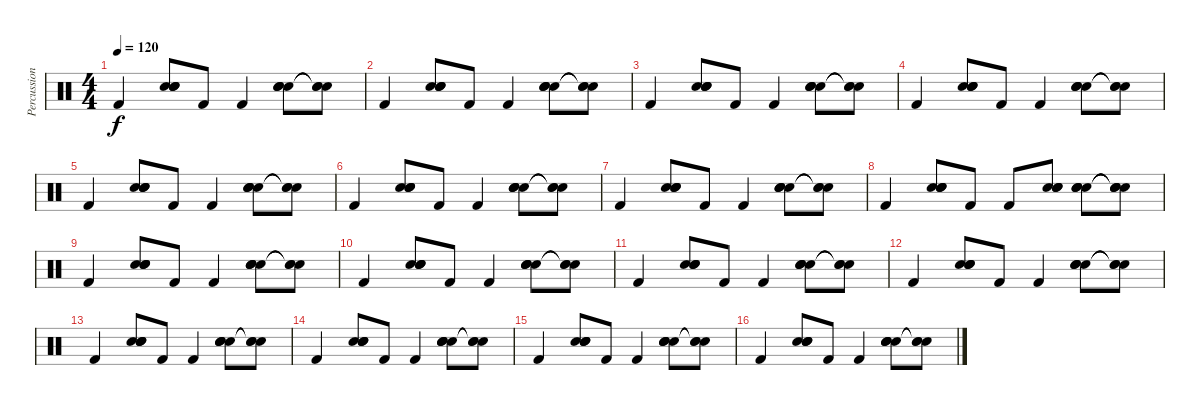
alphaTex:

\track ("Percussion" "Percussion") {instrument percussion}
\staff {score}
\articulation defaults
\ts (4 4)
\tempo 120
\clef neutral
\ks c "Kick (hit) 2".4{dy f}
("Snare (hit) 2" "Snare (hit) 2" "Electric Snare (hit)" "Electric Snare (hit)").8 "Kick (hit) 2".8 "Kick (hit) 2".4 ("Snare (hit) 2" "Snare (hit) 2" "Electric Snare (hit)" "Electric Snare (hit)").8 ("Snare (hit)"{t} "Snare (hit)"{t} "Snare (hit)"{t}).8 |
"Kick (hit) 2".4 ("Snare (hit) 2" "Snare (hit) 2" "Electric Snare (hit)" "Electric Snare (hit)").8 "Kick (hit) 2".8 "Kick (hit) 2".4 ("Snare (hit) 2" "Snare (hit) 2" "Electric Snare (hit)" "Electric Snare (hit)").8 ("Snare (hit)"{t} "Snare (hit)"{t} "Snare (hit)"{t}).8 |
"Kick (hit) 2".4 ("Snare (hit) 2" "Snare (hit) 2" "Electric Snare (hit)" "Electric Snare (hit)").8 "Kick (hit) 2".8 "Kick (hit) 2".4 ("Snare (hit) 2" "Snare (hit) 2" "Electric Snare (hit)" "Electric Snare (hit)").8 ("Snare (hit)"{t} "Snare (hit)"{t} "Snare (hit)"{t}).8 |
"Kick (hit) 2".4 ("Snare (hit) 2" "Snare (hit) 2" "Electric Snare (hit)" "Electric Snare (hit)").8 "Kick (hit) 2".8 "Kick (hit) 2".4 ("Snare (hit) 2" "Snare (hit) 2" "Electric Snare (hit)" "Electric Snare (hit)").8 ("Snare (hit)"{t} "Snare (hit)"{t} "Snare (hit)"{t}).8 |
"Kick (hit) 2".4 ("Snare (hit) 2" "Snare (hit) 2" "Electric Snare (hit)" "Electric Snare (hit)").8 "Kick (hit) 2".8 "Kick (hit) 2".4 ("Snare (hit) 2" "Snare (hit) 2" "Electric Snare (hit)" "Electric Snare (hit)").8 ("Snare (hit)"{t} "Snare (hit)"{t} "Snare (hit)"{t}).8 |
"Kick (hit) 2".4 ("Snare (hit) 2" "Snare (hit) 2" "Electric Snare (hit)" "Electric Snare (hit)").8 "Kick (hit) 2".8 "Kick (hit) 2".4 ("Snare (hit) 2" "Snare (hit) 2" "Electric Snare (hit)" "Electric Snare (hit)").8 ("Snare (hit)"{t} "Snare (hit)"{t} "Snare (hit)"{t}).8 |
"Kick (hit) 2".4 ("Snare (hit) 2" "Snare (hit) 2" "Electric Snare (hit)" "Electric Snare (hit)").8 "Kick (hit) 2".8 "Kick (hit) 2".4 ("Snare (hit) 2" "Snare (hit) 2" "Electric Snare (hit)" "Electric Snare (hit)").8 ("Snare (hit)"{t} "Snare (hit)"{t} "Snare (hit)"{t}).8 |
"Kick (hit) 2".4 ("Snare (hit) 2" "Snare (hit) 2" "Electric Snare (hit)" "Electric Snare (hit)").8 "Kick (hit) 2".8 "Kick (hit) 2".8 ("Snare (hit) 2" "Snare (hit) 2" "Electric Snare (hit)" "Electric Snare (hit)").8 ("Snare (hit) 2" "Snare (hit) 2" "Electric Snare (hit)" "Electric Snare (hit)").8 ("Snare (hit)"{t} "Snare (hit)"{t} "Snare (hit)"{t} "Snare (hit)"{t}).8 |
"Kick (hit) 2".4 ("Snare (hit) 2" "Snare (hit) 2" "Electric Snare (hit)" "Electric Snare (hit)").8 "Kick (hit) 2".8 "Kick (hit) 2".4 ("Snare (hit) 2" "Snare (hit) 2" "Electric Snare (hit)" "Electric Snare (hit)").8 ("Snare (hit)"{t} "Snare (hit)"{t} "Snare (hit)"{t}).8 |
"Kick (hit) 2".4 ("Snare (hit) 2" "Snare (hit) 2" "Electric Snare (hit)" "Electric Snare (hit)").8 "Kick (hit) 2".8 "Kick (hit) 2".4 ("Snare (hit) 2" "Snare (hit) 2" "Electric Snare (hit)" "Electric Snare (hit)").8 ("Snare (hit)"{t} "Snare (hit)"{t} "Snare (hit)"{t}).8 |
"Kick (hit) 2".4 ("Snare (hit) 2" "Snare (hit) 2" "Electric Snare (hit)" "Electric Snare (hit)").8 "Kick (hit) 2".8 "Kick (hit) 2".4 ("Snare (hit) 2" "Snare (hit) 2" "Electric Snare (hit)" "Electric Snare (hit)").8 ("Snare (hit)"{t} "Snare (hit)"{t} "Snare (hit)"{t}).8 |
"Kick (hit) 2".4 ("Snare (hit) 2" "Snare (hit) 2" "Electric Snare (hit)" "Electric Snare (hit)").8 "Kick (hit) 2".8 "Kick (hit) 2".4 ("Snare (hit) 2" "Snare (hit) 2" "Electric Snare (hit)" "Electric Snare (hit)").8 ("Snare (hit)"{t} "Snare (hit)"{t} "Snare (hit)"{t}).8 |
"Kick (hit) 2".4 ("Snare (hit) 2" "Snare (hit) 2" "Electric Snare (hit)" "Electric Snare (hit)").8 "Kick (hit) 2".8 "Kick (hit) 2".4 ("Snare (hit) 2" "Snare (hit) 2" "Electric Snare (hit)" "Electric Snare (hit)").8 ("Snare (hit)"{t} "Snare (hit)"{t} "Snare (hit)"{t}).8 |
"Kick (hit) 2".4 ("Snare (hit) 2" "Snare (hit) 2" "Electric Snare (hit)" "Electric Snare (hit)").8 "Kick (hit) 2".8 "Kick (hit) 2".4 ("Snare (hit) 2" "Snare (hit) 2" "Electric Snare (hit)" "Electric Snare (hit)").8 ("Snare (hit)"{t} "Snare (hit)"{t} "Snare (hit)"{t}).8 |
"Kick (hit) 2".4 ("Snare (hit) 2" "Snare (hit) 2" "Electric Snare (hit)" "Electric Snare (hit)").8 "Kick (hit) 2".8 "Kick (hit) 2".4 ("Snare (hit) 2" "Snare (hit) 2" "Electric Snare (hit)" "Electric Snare (hit)").8 ("Snare (hit)"{t} "Snare (hit)"{t} "Snare (hit)"{t}).8 |
"Kick (hit) 2".4 ("Snare (hit) 2" "Snare (hit) 2" "Electric Snare (hit)" "Electric Snare (hit)").8 "Kick (hit) 2".8 "Kick (hit) 2".4 ("Snare (hit) 2" "Snare (hit) 2" "Electric Snare (hit)" "Electric Snare (hit)").8 ("Snare (hit)"{t} "Snare (hit)"{t} "Snare (hit)"{t}).8
